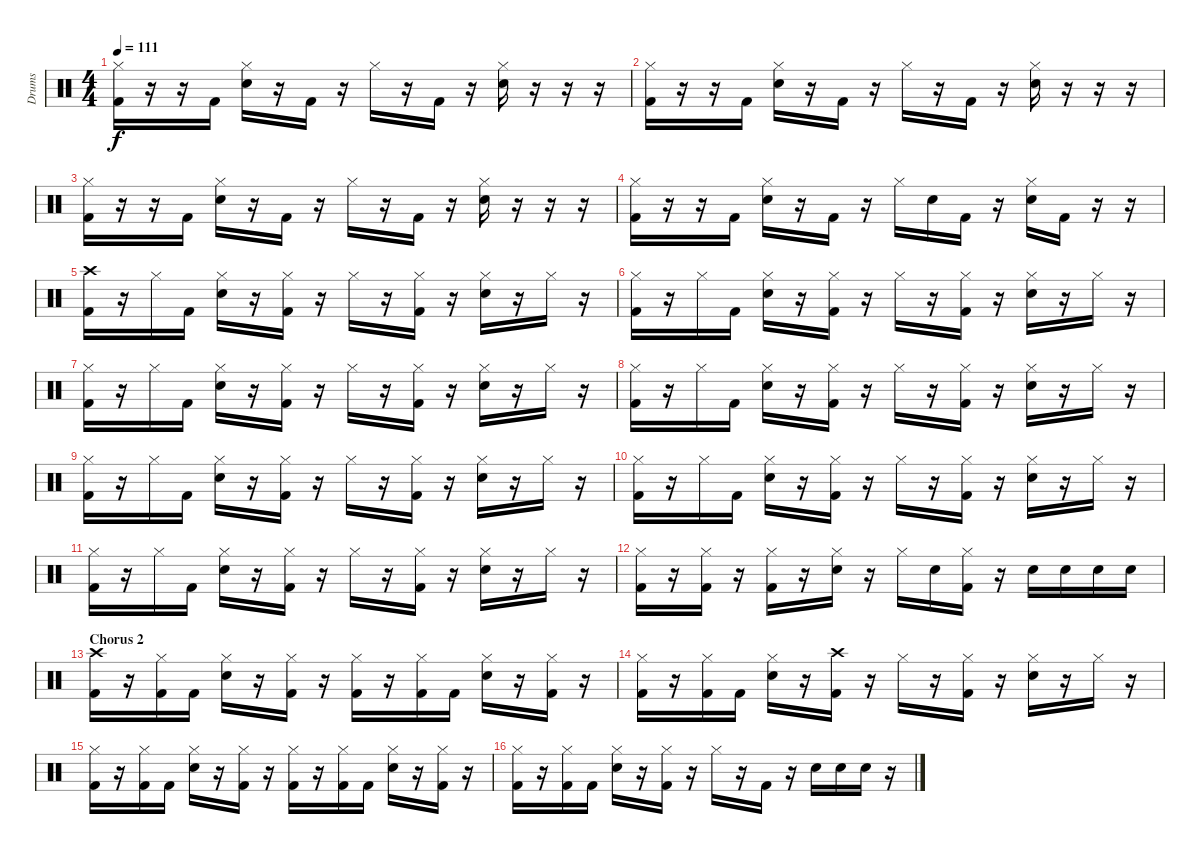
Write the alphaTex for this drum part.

\track ("Drums" "Drums") {instrument percussion}
\staff {score}
\articulation defaults
\ts (4 4)
\tempo 111
\clef neutral
\ks c
("Hi-Hat (closed)" "Kick (hit) 2").16{dy f} r.16 r.16 "Kick (hit) 2".16 ("Hi-Hat (closed)" "Snare (hit) 2").16 r.16 "Kick (hit) 2".16 r.16 "Hi-Hat (closed)".16 r.16 "Kick (hit) 2".16 r.16 ("Hi-Hat (closed)" "Snare (hit) 2").16 r.16 r.16 r.16 |
("Hi-Hat (closed)" "Kick (hit) 2").16 r.16 r.16 "Kick (hit) 2".16 ("Hi-Hat (closed)" "Snare (hit) 2").16 r.16 "Kick (hit) 2".16 r.16 "Hi-Hat (closed)".16 r.16 "Kick (hit) 2".16 r.16 ("Hi-Hat (closed)" "Snare (hit) 2").16 r.16 r.16 r.16 |
("Hi-Hat (closed)" "Kick (hit) 2").16 r.16 r.16 "Kick (hit) 2".16 ("Hi-Hat (closed)" "Snare (hit) 2").16 r.16 "Kick (hit) 2".16 r.16 "Hi-Hat (closed)".16 r.16 "Kick (hit) 2".16 r.16 ("Hi-Hat (closed)" "Snare (hit) 2").16 r.16 r.16 r.16 |
("Hi-Hat (closed)" "Kick (hit) 2").16 r.16 r.16 "Kick (hit) 2".16 ("Hi-Hat (closed)" "Snare (hit) 2").16 r.16 "Kick (hit) 2".16 r.16 "Hi-Hat (closed)".16 "Snare (hit) 2".16 "Kick (hit) 2".16 r.16 ("Hi-Hat (closed)" "Snare (hit) 2").16 "Kick (hit) 2".16 r.16 r.16 |
("Crash high (hit)" "Kick (hit) 2").16 r.16 "Hi-Hat (closed)".16 "Kick (hit) 2".16 ("Hi-Hat (closed)" "Snare (hit) 2").16 r.16 ("Hi-Hat (closed)" "Kick (hit) 2").16 r.16 "Hi-Hat (closed)".16 r.16 ("Hi-Hat (closed)" "Kick (hit) 2").16 r.16 ("Hi-Hat (closed)" "Snare (hit) 2").16 r.16 "Hi-Hat (closed)".16 r.16 |
("Hi-Hat (closed)" "Kick (hit) 2").16 r.16 "Hi-Hat (closed)".16 "Kick (hit) 2".16 ("Hi-Hat (closed)" "Snare (hit) 2").16 r.16 ("Hi-Hat (closed)" "Kick (hit) 2").16 r.16 "Hi-Hat (closed)".16 r.16 ("Hi-Hat (closed)" "Kick (hit) 2").16 r.16 ("Hi-Hat (closed)" "Snare (hit) 2").16 r.16 "Hi-Hat (closed)".16 r.16 |
("Hi-Hat (closed)" "Kick (hit) 2").16 r.16 "Hi-Hat (closed)".16 "Kick (hit) 2".16 ("Hi-Hat (closed)" "Snare (hit) 2").16 r.16 ("Hi-Hat (closed)" "Kick (hit) 2").16 r.16 "Hi-Hat (closed)".16 r.16 ("Hi-Hat (closed)" "Kick (hit) 2").16 r.16 ("Hi-Hat (closed)" "Snare (hit) 2").16 r.16 "Hi-Hat (closed)".16 r.16 |
("Hi-Hat (closed)" "Kick (hit) 2").16 r.16 "Hi-Hat (closed)".16 "Kick (hit) 2".16 ("Hi-Hat (closed)" "Snare (hit) 2").16 r.16 ("Hi-Hat (closed)" "Kick (hit) 2").16 r.16 "Hi-Hat (closed)".16 r.16 ("Hi-Hat (closed)" "Kick (hit) 2").16 r.16 ("Hi-Hat (closed)" "Snare (hit) 2").16 r.16 "Hi-Hat (closed)".16 r.16 |
("Hi-Hat (closed)" "Kick (hit) 2").16 r.16 "Hi-Hat (closed)".16 "Kick (hit) 2".16 ("Hi-Hat (closed)" "Snare (hit) 2").16 r.16 ("Hi-Hat (closed)" "Kick (hit) 2").16 r.16 "Hi-Hat (closed)".16 r.16 ("Hi-Hat (closed)" "Kick (hit) 2").16 r.16 ("Hi-Hat (closed)" "Snare (hit) 2").16 r.16 "Hi-Hat (closed)".16 r.16 |
("Hi-Hat (closed)" "Kick (hit) 2").16 r.16 "Hi-Hat (closed)".16 "Kick (hit) 2".16 ("Hi-Hat (closed)" "Snare (hit) 2").16 r.16 ("Hi-Hat (closed)" "Kick (hit) 2").16 r.16 "Hi-Hat (closed)".16 r.16 ("Hi-Hat (closed)" "Kick (hit) 2").16 r.16 ("Hi-Hat (closed)" "Snare (hit) 2").16 r.16 "Hi-Hat (closed)".16 r.16 |
("Hi-Hat (closed)" "Kick (hit) 2").16 r.16 "Hi-Hat (closed)".16 "Kick (hit) 2".16 ("Hi-Hat (closed)" "Snare (hit) 2").16 r.16 ("Hi-Hat (closed)" "Kick (hit) 2").16 r.16 "Hi-Hat (closed)".16 r.16 ("Hi-Hat (closed)" "Kick (hit) 2").16 r.16 ("Hi-Hat (closed)" "Snare (hit) 2").16 r.16 "Hi-Hat (closed)".16 r.16 |
("Hi-Hat (closed)" "Kick (hit) 2").16 r.16 ("Hi-Hat (closed)" "Kick (hit) 2").16 r.16 ("Hi-Hat (closed)" "Kick (hit) 2").16 r.16 ("Hi-Hat (closed)" "Snare (hit) 2").16 r.16 "Hi-Hat (closed)".16 "Snare (hit) 2".16 ("Hi-Hat (closed)" "Kick (hit) 2").16 r.16 "Snare (hit) 2".16 "Snare (hit) 2".16 "Snare (hit) 2".16 "Snare (hit) 2".16 |
\section ("" "Chorus 2")
("Crash high (hit)" "Kick (hit) 2").16 r.16 ("Hi-Hat (closed)" "Kick (hit) 2").16 "Kick (hit) 2".16 ("Hi-Hat (closed)" "Snare (hit) 2").16 r.16 ("Hi-Hat (closed)" "Kick (hit) 2").16 r.16 ("Hi-Hat (closed)" "Kick (hit) 2").16 r.16 ("Hi-Hat (closed)" "Kick (hit) 2").16 "Kick (hit) 2".16 ("Hi-Hat (closed)" "Snare (hit) 2").16 r.16 ("Hi-Hat (closed)" "Kick (hit) 2").16 r.16 |
("Hi-Hat (closed)" "Kick (hit) 2").16 r.16 ("Hi-Hat (closed)" "Kick (hit) 2").16 "Kick (hit) 2".16 ("Hi-Hat (closed)" "Snare (hit) 2").16 r.16 ("Crash high (hit)" "Kick (hit) 2").16 r.16 "Hi-Hat (closed)".16 r.16 ("Hi-Hat (closed)" "Kick (hit) 2").16 r.16 ("Hi-Hat (closed)" "Snare (hit) 2").16 r.16 "Hi-Hat (closed)".16 r.16 |
("Hi-Hat (closed)" "Kick (hit) 2").16 r.16 ("Hi-Hat (closed)" "Kick (hit) 2").16 "Kick (hit) 2".16 ("Hi-Hat (closed)" "Snare (hit) 2").16 r.16 ("Hi-Hat (closed)" "Kick (hit) 2").16 r.16 ("Hi-Hat (closed)" "Kick (hit) 2").16 r.16 ("Hi-Hat (closed)" "Kick (hit) 2").16 "Kick (hit) 2".16 ("Hi-Hat (closed)" "Snare (hit) 2").16 r.16 ("Hi-Hat (closed)" "Kick (hit) 2").16 r.16 |
("Hi-Hat (closed)" "Kick (hit) 2").16 r.16 ("Hi-Hat (closed)" "Kick (hit) 2").16 "Kick (hit) 2".16 ("Hi-Hat (closed)" "Snare (hit) 2").16 r.16 ("Hi-Hat (closed)" "Kick (hit) 2").16 r.16 "Hi-Hat (closed)".16 r.16 "Kick (hit) 2".16 r.16 "Snare (hit) 2".16 "Snare (hit) 2".16 "Snare (hit) 2".16 r.16
